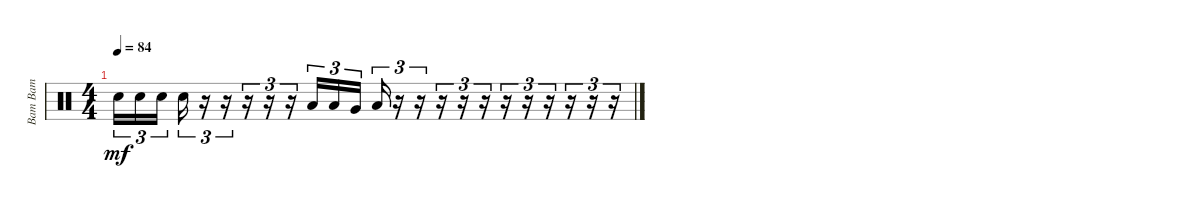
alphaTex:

\track ("Bam Bam" "Bam Bam") {instrument percussion}
\staff {score}
\articulation defaults
\ts (4 4)
\tempo 84
\clef neutral
\ks c "Electric Snare (hit)".16{tu (3 2) dy mf} "Electric Snare (hit)".16{tu (3 2)} "Electric Snare (hit)".16{tu (3 2) beam splitsecondary} "Electric Snare (hit)".16{tu (3 2)}
r.16{tu (3 2)} r.16{tu (3 2)} r.16{tu (3 2)} r.16{tu (3 2)} r.16{tu (3 2)} "Low Tom (hit)".16{tu (3 2)} "Low Tom (hit)".16{tu (3 2)} "Very Low Tom (hit)".16{tu (3 2)} "Low Floor Tom (hit)".16{tu (3 2)} r.16{tu (3 2)} r.16{tu (3 2)} r.16{tu (3 2)} r.16{tu (3 2)} r.16{tu (3 2)} r.16{tu (3 2)} r.16{tu (3 2)} r.16{tu (3 2)} r.16{tu (3 2)} r.16{tu (3 2)} r.16{tu (3 2)}
